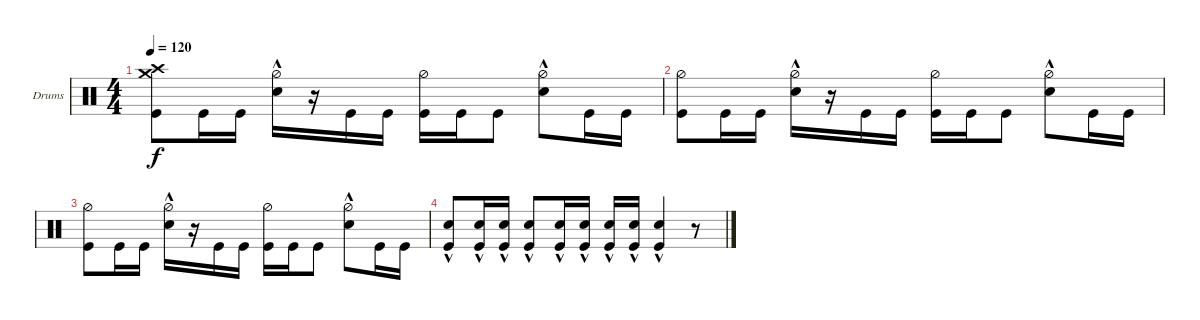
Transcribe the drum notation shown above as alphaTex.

\bracketExtendMode groupsimilarinstruments
\firstSystemTrackNameOrientation horizontal
\otherSystemsTrackNameOrientation horizontal
\track ("Drumkit" "Drums") {instrument percussion}
\staff {score}
\articulation defaults
\ts (4 4)
\tempo 120
\clef neutral
\scale
0.333333
\ks c
("Kick (hit)" "Crash medium (hit)" "Crash high (hit)").8{dy f} "Kick (hit)".16 "Kick (hit)".16 ("Snare (hit) 2"{hac} "Hi-Hat (half)").16 r.16 "Kick (hit)".16 "Kick (hit)".16 ("Kick (hit)" "Hi-Hat (half)").16 "Kick (hit)".16 "Kick (hit)".8 ("Snare (hit) 2"{hac} "Hi-Hat (half)").8 "Kick (hit)".16 "Kick (hit)".16 |
("Kick (hit)" "Hi-Hat (half)").8 "Kick (hit)".16 "Kick (hit)".16 ("Snare (hit) 2"{hac} "Hi-Hat (half)").16 r.16 "Kick (hit)".16 "Kick (hit)".16 ("Kick (hit)" "Hi-Hat (half)").16 "Kick (hit)".16 "Kick (hit)".8 ("Snare (hit) 2"{hac} "Hi-Hat (half)").8 "Kick (hit)".16 "Kick (hit)".16 |
("Kick (hit)" "Hi-Hat (half)").8 "Kick (hit)".16 "Kick (hit)".16 ("Snare (hit) 2"{hac} "Hi-Hat (half)").16 r.16 "Kick (hit)".16 "Kick (hit)".16 ("Kick (hit)" "Hi-Hat (half)").16 "Kick (hit)".16 "Kick (hit)".8 ("Snare (hit) 2"{hac} "Hi-Hat (half)").8 "Kick (hit)".16 "Kick (hit)".16 |
("Kick (hit)" "Snare (hit) 2"{hac}).8 ("Kick (hit)" "Snare (hit) 2"{hac}).16 ("Kick (hit)" "Snare (hit) 2"{hac}).16 ("Kick (hit)" "Snare (hit) 2"{hac}).8 ("Kick (hit)" "Snare (hit) 2"{hac}).16 ("Kick (hit)" "Snare (hit) 2"{hac}).16 ("Kick (hit)" "Snare (hit) 2"{hac}).16 ("Kick (hit)" "Snare (hit) 2"{hac}).16 ("Kick (hit)" "Snare (hit) 2"{hac}).4 r.8
